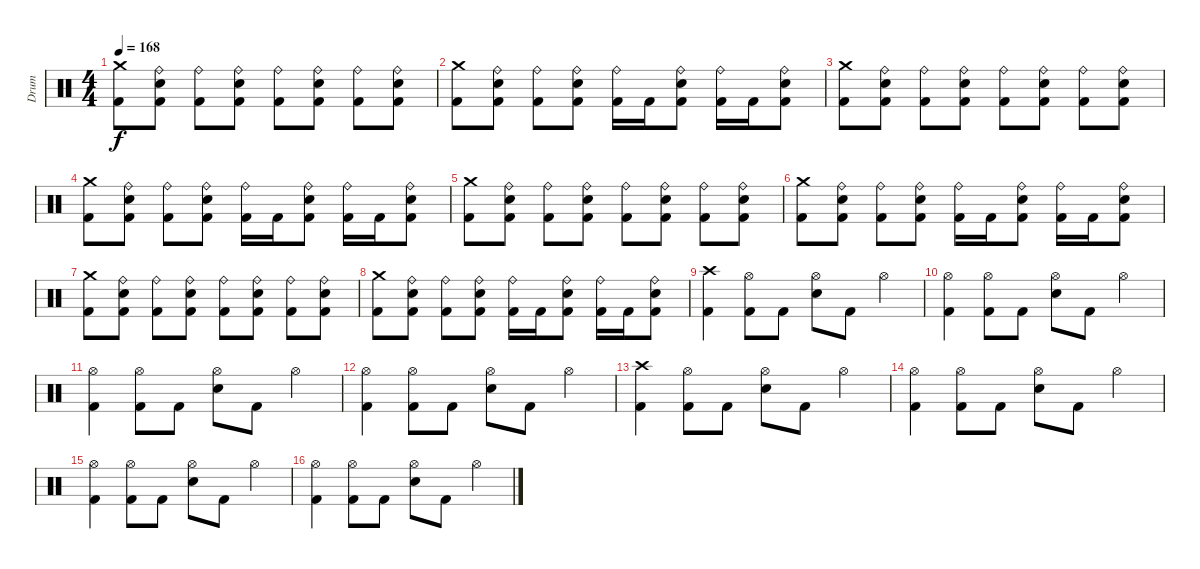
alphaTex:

\track ("Drum" "Drum") {instrument percussion}
\staff {score}
\articulation defaults
\ts (4 4)
\tempo 168
\clef neutral
\ks c
("Crash medium (hit)" "Kick (hit) 2").8{dy f} ("Ride (bell)" "Electric Snare (hit)" "Kick (hit) 2").8 ("Ride (bell)" "Kick (hit) 2").8 ("Ride (bell)" "Electric Snare (hit)" "Kick (hit) 2").8 ("Ride (bell)" "Kick (hit) 2").8 ("Ride (bell)" "Electric Snare (hit)" "Kick (hit) 2").8 ("Ride (bell)" "Kick (hit) 2").8 ("Ride (bell)" "Electric Snare (hit)" "Kick (hit) 2").8 |
("Crash medium (hit)" "Kick (hit) 2").8 ("Ride (bell)" "Electric Snare (hit)" "Kick (hit) 2").8 ("Ride (bell)" "Kick (hit) 2").8 ("Ride (bell)" "Electric Snare (hit)" "Kick (hit) 2").8 ("Ride (bell)" "Kick (hit) 2").16 "Kick (hit) 2".16 ("Kick (hit) 2" "Ride (bell)" "Electric Snare (hit)").8 ("Ride (bell)" "Kick (hit) 2").16 "Kick (hit) 2".16 ("Kick (hit) 2" "Ride (bell)" "Electric Snare (hit)").8 |
("Crash medium (hit)" "Kick (hit) 2").8 ("Ride (bell)" "Electric Snare (hit)" "Kick (hit) 2").8 ("Ride (bell)" "Kick (hit) 2").8 ("Ride (bell)" "Electric Snare (hit)" "Kick (hit) 2").8 ("Ride (bell)" "Kick (hit) 2").8 ("Ride (bell)" "Electric Snare (hit)" "Kick (hit) 2").8 ("Ride (bell)" "Kick (hit) 2").8 ("Ride (bell)" "Electric Snare (hit)" "Kick (hit) 2").8 |
("Crash medium (hit)" "Kick (hit) 2").8 ("Ride (bell)" "Electric Snare (hit)" "Kick (hit) 2").8 ("Ride (bell)" "Kick (hit) 2").8 ("Ride (bell)" "Electric Snare (hit)" "Kick (hit) 2").8 ("Ride (bell)" "Kick (hit) 2").16 "Kick (hit) 2".16 ("Kick (hit) 2" "Ride (bell)" "Electric Snare (hit)").8 ("Ride (bell)" "Kick (hit) 2").16 "Kick (hit) 2".16 ("Kick (hit) 2" "Ride (bell)" "Electric Snare (hit)").8 |
("Crash medium (hit)" "Kick (hit) 2").8 ("Ride (bell)" "Electric Snare (hit)" "Kick (hit) 2").8 ("Ride (bell)" "Kick (hit) 2").8 ("Ride (bell)" "Electric Snare (hit)" "Kick (hit) 2").8 ("Ride (bell)" "Kick (hit) 2").8 ("Ride (bell)" "Electric Snare (hit)" "Kick (hit) 2").8 ("Ride (bell)" "Kick (hit) 2").8 ("Ride (bell)" "Electric Snare (hit)" "Kick (hit) 2").8 |
("Crash medium (hit)" "Kick (hit) 2").8 ("Ride (bell)" "Electric Snare (hit)" "Kick (hit) 2").8 ("Ride (bell)" "Kick (hit) 2").8 ("Ride (bell)" "Electric Snare (hit)" "Kick (hit) 2").8 ("Ride (bell)" "Kick (hit) 2").16 "Kick (hit) 2".16 ("Kick (hit) 2" "Ride (bell)" "Electric Snare (hit)").8 ("Ride (bell)" "Kick (hit) 2").16 "Kick (hit) 2".16 ("Kick (hit) 2" "Ride (bell)" "Electric Snare (hit)").8 |
("Crash medium (hit)" "Kick (hit) 2").8 ("Ride (bell)" "Electric Snare (hit)" "Kick (hit) 2").8 ("Ride (bell)" "Kick (hit) 2").8 ("Ride (bell)" "Electric Snare (hit)" "Kick (hit) 2").8 ("Ride (bell)" "Kick (hit) 2").8 ("Ride (bell)" "Electric Snare (hit)" "Kick (hit) 2").8 ("Ride (bell)" "Kick (hit) 2").8 ("Ride (bell)" "Electric Snare (hit)" "Kick (hit) 2").8 |
("Crash medium (hit)" "Kick (hit) 2").8 ("Ride (bell)" "Electric Snare (hit)" "Kick (hit) 2").8 ("Ride (bell)" "Kick (hit) 2").8 ("Ride (bell)" "Electric Snare (hit)" "Kick (hit) 2").8 ("Ride (bell)" "Kick (hit) 2").16 "Kick (hit) 2".16 ("Kick (hit) 2" "Ride (bell)" "Electric Snare (hit)").8 ("Ride (bell)" "Kick (hit) 2").16 "Kick (hit) 2".16 ("Kick (hit) 2" "Ride (bell)" "Electric Snare (hit)").8 |
("Crash high (hit)" "Kick (hit) 2").4 ("Kick (hit) 2" "Hi-Hat (open)").8 "Kick (hit) 2".8 ("Hi-Hat (open)" "Electric Snare (hit)").8 "Kick (hit) 2".8 "Hi-Hat (open)".4 |
("Kick (hit) 2" "Hi-Hat (open)").4 ("Kick (hit) 2" "Hi-Hat (open)").8 "Kick (hit) 2".8 ("Hi-Hat (open)" "Electric Snare (hit)").8 "Kick (hit) 2".8 "Hi-Hat (open)".4 |
("Kick (hit) 2" "Hi-Hat (open)").4 ("Kick (hit) 2" "Hi-Hat (open)").8 "Kick (hit) 2".8 ("Hi-Hat (open)" "Electric Snare (hit)").8 "Kick (hit) 2".8 "Hi-Hat (open)".4 |
("Kick (hit) 2" "Hi-Hat (open)").4 ("Kick (hit) 2" "Hi-Hat (open)").8 "Kick (hit) 2".8 ("Hi-Hat (open)" "Electric Snare (hit)").8 "Kick (hit) 2".8 "Hi-Hat (open)".4 |
("Crash high (hit)" "Kick (hit) 2").4 ("Kick (hit) 2" "Hi-Hat (open)").8 "Kick (hit) 2".8 ("Hi-Hat (open)" "Electric Snare (hit)").8 "Kick (hit) 2".8 "Hi-Hat (open)".4 |
("Kick (hit) 2" "Hi-Hat (open)").4 ("Kick (hit) 2" "Hi-Hat (open)").8 "Kick (hit) 2".8 ("Hi-Hat (open)" "Electric Snare (hit)").8 "Kick (hit) 2".8 "Hi-Hat (open)".4 |
("Kick (hit) 2" "Hi-Hat (open)").4 ("Kick (hit) 2" "Hi-Hat (open)").8 "Kick (hit) 2".8 ("Hi-Hat (open)" "Electric Snare (hit)").8 "Kick (hit) 2".8 "Hi-Hat (open)".4 |
("Kick (hit) 2" "Hi-Hat (open)").4 ("Kick (hit) 2" "Hi-Hat (open)").8 "Kick (hit) 2".8 ("Hi-Hat (open)" "Electric Snare (hit)").8 "Kick (hit) 2".8 "Hi-Hat (open)".4
